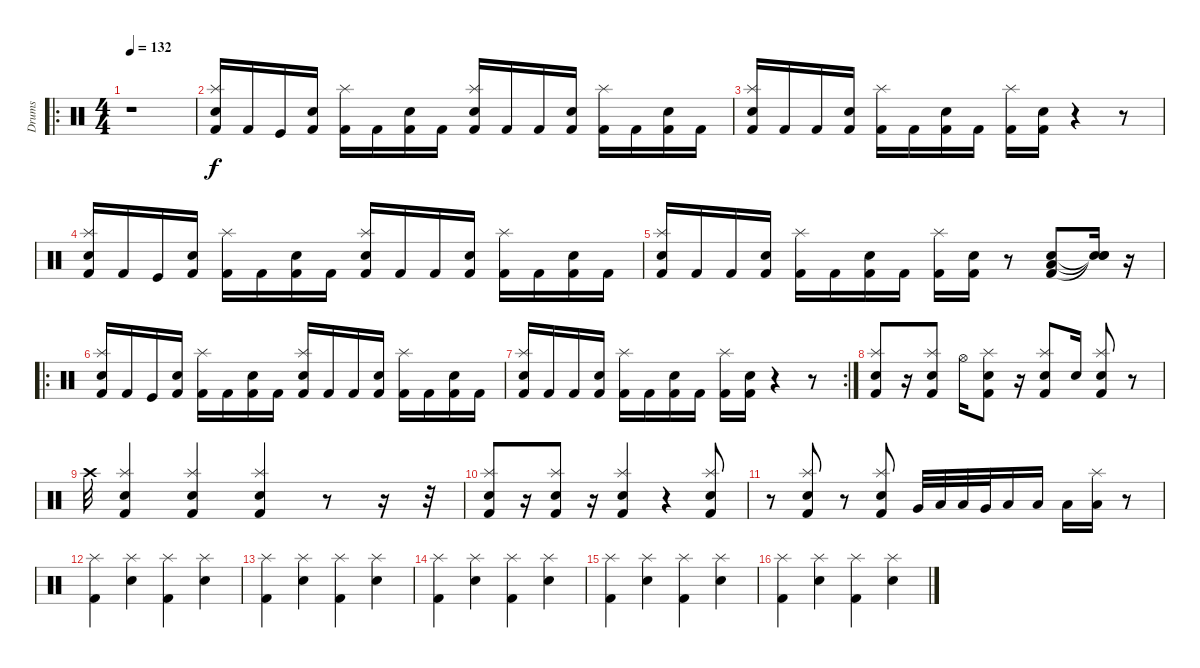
\track ("Drums" "Drums") {instrument percussion}
\staff {score}
\articulation defaults
\ro
\ts (4 4)
\tempo 132
\clef neutral
\ks c
r.1{dy f} |
("Kick (hit) 2" "Splash (hit)" "Electric Snare (hit)").16 "Kick (hit) 2".16 "Kick (hit)".16 ("Kick (hit) 2" "Electric Snare (hit)").16 ("Kick (hit) 2" "Splash (hit)").16 "Kick (hit) 2".16 ("Kick (hit) 2" "Electric Snare (hit)").16 "Kick (hit) 2".16 ("Kick (hit) 2" "Splash (hit)" "Electric Snare (hit)").16 "Kick (hit) 2".16 "Kick (hit) 2".16 ("Kick (hit) 2" "Electric Snare (hit)").16 ("Kick (hit) 2" "Splash (hit)").16 "Kick (hit) 2".16 ("Kick (hit) 2" "Electric Snare (hit)").16 "Kick (hit) 2".16 |
("Kick (hit) 2" "Splash (hit)" "Electric Snare (hit)").16 "Kick (hit) 2".16 "Kick (hit) 2".16 ("Kick (hit) 2" "Electric Snare (hit)").16 ("Kick (hit) 2" "Splash (hit)").16 "Kick (hit) 2".16 ("Kick (hit) 2" "Electric Snare (hit)").16 "Kick (hit) 2".16 ("Kick (hit) 2" "Splash (hit)").16 ("Kick (hit) 2" "Electric Snare (hit)").16 r.4 r.8 |
("Kick (hit) 2" "Splash (hit)" "Electric Snare (hit)").16 "Kick (hit) 2".16 "Kick (hit)".16 ("Kick (hit) 2" "Electric Snare (hit)").16 ("Kick (hit) 2" "Splash (hit)").16 "Kick (hit) 2".16 ("Kick (hit) 2" "Electric Snare (hit)").16 "Kick (hit) 2".16 ("Kick (hit) 2" "Splash (hit)" "Electric Snare (hit)").16 "Kick (hit) 2".16 "Kick (hit) 2".16 ("Kick (hit) 2" "Electric Snare (hit)").16 ("Kick (hit) 2" "Splash (hit)").16 "Kick (hit) 2".16 ("Kick (hit) 2" "Electric Snare (hit)").16 "Kick (hit) 2".16 |
("Kick (hit) 2" "Splash (hit)" "Electric Snare (hit)").16 "Kick (hit) 2".16 "Kick (hit) 2".16 ("Kick (hit) 2" "Electric Snare (hit)").16 ("Kick (hit) 2" "Splash (hit)").16 "Kick (hit) 2".16 ("Kick (hit) 2" "Electric Snare (hit)").16 "Kick (hit) 2".16 ("Kick (hit) 2" "Splash (hit)").16 ("Kick (hit) 2" "Electric Snare (hit)").16 r.8 ("Kick (hit) 2" "Electric Snare (hit)" "Low Tom (hit)").8 ("Snare (hit)"{t} "Snare (hit)"{t} "Snare (hit)"{t}).16 r.16 |
\ro
("Kick (hit) 2" "Splash (hit)" "Electric Snare (hit)").16 "Kick (hit) 2".16 "Kick (hit)".16 ("Kick (hit) 2" "Electric Snare (hit)").16 ("Kick (hit) 2" "Splash (hit)").16 "Kick (hit) 2".16 ("Kick (hit) 2" "Electric Snare (hit)").16 "Kick (hit) 2".16 ("Kick (hit) 2" "Splash (hit)" "Electric Snare (hit)").16 "Kick (hit) 2".16 "Kick (hit) 2".16 ("Kick (hit) 2" "Electric Snare (hit)").16 ("Kick (hit) 2" "Splash (hit)").16 "Kick (hit) 2".16 ("Kick (hit) 2" "Electric Snare (hit)").16 "Kick (hit) 2".16 |
\rc 2
("Kick (hit) 2" "Splash (hit)" "Electric Snare (hit)").16 "Kick (hit) 2".16 "Kick (hit) 2".16 ("Kick (hit) 2" "Electric Snare (hit)").16 ("Kick (hit) 2" "Splash (hit)").16 "Kick (hit) 2".16 ("Kick (hit) 2" "Electric Snare (hit)").16 "Kick (hit) 2".16 ("Kick (hit) 2" "Splash (hit)").16 ("Kick (hit) 2" "Electric Snare (hit)").16 r.4 r.8 |
("Kick (hit) 2" "Splash (hit)" "Snare (hit) 2").8 r.16 ("Kick (hit) 2" "Splash (hit)" "Snare (hit) 2").8 "Hi-Hat (open)".16 ("Kick (hit) 2" "Splash (hit)" "Snare (hit) 2").8 r.16 ("Kick (hit) 2" "Splash (hit)" "Snare (hit) 2").8 "Electric Snare (hit)".16 ("Kick (hit) 2" "Splash (hit)" "Snare (hit) 2").8 r.8 |
"Crash high (hit)".32 ("Kick (hit) 2" "Splash (hit)" "Snare (hit) 2").4 ("Kick (hit) 2" "Splash (hit)" "Snare (hit) 2").4 ("Kick (hit) 2" "Splash (hit)" "Snare (hit) 2").4 r.8 r.16 r.32 |
("Kick (hit) 2" "Splash (hit)" "Snare (hit) 2").8 r.16 ("Kick (hit) 2" "Splash (hit)" "Snare (hit) 2").8 r.16 ("Kick (hit) 2" "Splash (hit)" "Snare (hit) 2").4 r.4 ("Kick (hit) 2" "Splash (hit)" "Snare (hit) 2").8 |
r.8 ("Kick (hit) 2" "Splash (hit)" "Snare (hit) 2").8 r.8 ("Kick (hit) 2" "Splash (hit)" "Snare (hit) 2").8 "Very Low Tom (hit)".32 "Low Tom (hit)".32 "Low Tom (hit)".32 "Very Low Tom (hit)".32 "Low Tom (hit)".16 "Low Tom (hit)".16 "Low Tom (hit)".16 ("Splash (hit)" "Low Tom (hit)").16 r.8 |
("Kick (hit) 2" "Splash (hit)").4 ("Electric Snare (hit)" "Splash (hit)").4 ("Kick (hit) 2" "Splash (hit)").4 ("Electric Snare (hit)" "Splash (hit)").4 |
("Kick (hit) 2" "Splash (hit)").4 ("Electric Snare (hit)" "Splash (hit)").4 ("Kick (hit) 2" "Splash (hit)").4 ("Electric Snare (hit)" "Splash (hit)").4 |
("Kick (hit) 2" "Splash (hit)").4 ("Electric Snare (hit)" "Splash (hit)").4 ("Kick (hit) 2" "Splash (hit)").4 ("Electric Snare (hit)" "Splash (hit)").4 |
("Kick (hit) 2" "Splash (hit)").4 ("Electric Snare (hit)" "Splash (hit)").4 ("Kick (hit) 2" "Splash (hit)").4 ("Electric Snare (hit)" "Splash (hit)").4 |
("Kick (hit) 2" "Splash (hit)").4 ("Electric Snare (hit)" "Splash (hit)").4 ("Kick (hit) 2" "Splash (hit)").4 ("Electric Snare (hit)" "Splash (hit)").4
